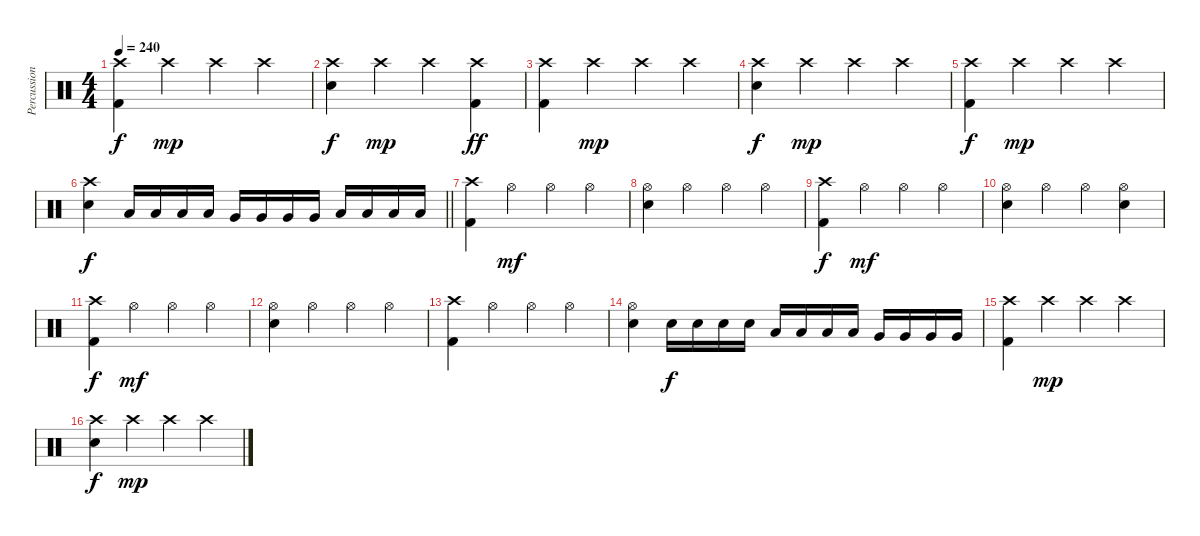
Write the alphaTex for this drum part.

\track ("Percussion" "Percussion") {instrument percussion}
\staff {score}
\articulation defaults
\ts (4 4)
\tempo 240
\clef neutral
\ks c
("Crash high (hit)" "Kick (hit) 2").4{dy f} "Crash high (hit)".4{dy mp} "Crash high (hit)".4 "Crash high (hit)".4 |
("Crash high (hit)" "Snare (hit) 2").4{dy f} "Crash high (hit)".4{dy mp} "Crash high (hit)".4 ("Crash high (hit)" "Kick (hit) 2").4{dy ff} |
("Crash high (hit)" "Kick (hit) 2").4 "Crash high (hit)".4{dy mp} "Crash high (hit)".4 "Crash high (hit)".4 |
("Crash high (hit)" "Snare (hit) 2").4{dy f} "Crash high (hit)".4{dy mp} "Crash high (hit)".4 "Crash high (hit)".4 |
("Crash high (hit)" "Kick (hit) 2").4{dy f} "Crash high (hit)".4{dy mp} "Crash high (hit)".4 "Crash high (hit)".4 |
\barLineRight lightlight
("Crash high (hit)" "Snare (hit) 2").4{dy f} "Low Tom (hit)".16 "Low Tom (hit)".16 "Low Tom (hit)".16 "Low Tom (hit)".16 "Very Low Tom (hit)".16 "Very Low Tom (hit)".16 "Very Low Tom (hit)".16 "Very Low Tom (hit)".16 "Low Floor Tom (hit)".16 "Low Floor Tom (hit)".16 "Low Floor Tom (hit)".16 "Low Floor Tom (hit)".16 |
("Crash high (hit)" "Kick (hit) 2").4 "Hi-Hat (open)".4{dy mf} "Hi-Hat (open)".4 "Hi-Hat (open)".4 |
("Hi-Hat (open)" "Snare (hit) 2").4 "Hi-Hat (open)".4 "Hi-Hat (open)".4 "Hi-Hat (open)".4 |
("Crash high (hit)" "Kick (hit) 2").4{dy f} "Hi-Hat (open)".4{dy mf} "Hi-Hat (open)".4 "Hi-Hat (open)".4 |
("Hi-Hat (open)" "Snare (hit) 2").4 "Hi-Hat (open)".4 "Hi-Hat (open)".4 ("Hi-Hat (open)" "Snare (hit) 2").4 |
("Crash high (hit)" "Kick (hit) 2").4{dy f} "Hi-Hat (open)".4{dy mf} "Hi-Hat (open)".4 "Hi-Hat (open)".4 |
("Hi-Hat (open)" "Snare (hit) 2").4 "Hi-Hat (open)".4 "Hi-Hat (open)".4 "Hi-Hat (open)".4 |
("Crash high (hit)" "Kick (hit) 2").4 "Hi-Hat (open)".4 "Hi-Hat (open)".4 "Hi-Hat (open)".4 |
("Hi-Hat (open)" "Snare (hit) 2").4 "Snare (hit) 2".16{dy f} "Snare (hit) 2".16 "Snare (hit) 2".16 "Snare (hit) 2".16 "Low Tom (hit)".16 "Low Tom (hit)".16 "Low Tom (hit)".16 "Low Tom (hit)".16 "Very Low Tom (hit)".16 "Very Low Tom (hit)".16 "Very Low Tom (hit)".16 "Very Low Tom (hit)".16 |
("Crash high (hit)" "Kick (hit) 2").4 "Crash high (hit)".4{dy mp} "Crash high (hit)".4 "Crash high (hit)".4 |
("Crash high (hit)" "Snare (hit) 2").4{dy f} "Crash high (hit)".4{dy mp} "Crash high (hit)".4 "Crash high (hit)".4
